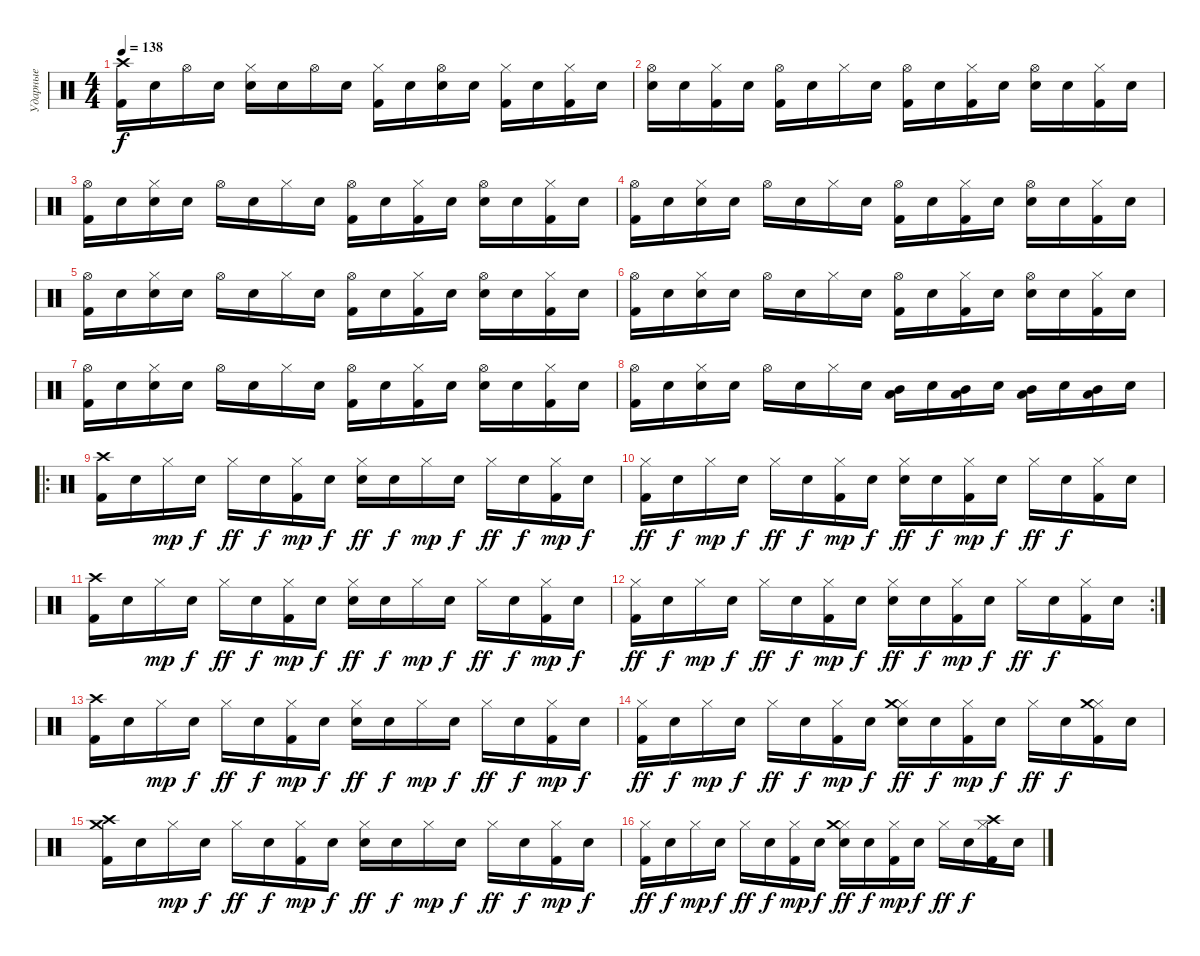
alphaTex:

\track ("Ударные" "Ударные") {instrument percussion}
\staff {score}
\articulation defaults
\ts (4 4)
\tempo 138
\clef neutral
\ks c
("Crash high (hit)" "Kick (hit) 2").16{dy f} "Snare (hit)".16 "Hi-Hat (open)".16 "Snare (hit)".16 ("Hi-Hat (closed)" "Snare (hit) 2").16 "Snare (hit)".16 "Hi-Hat (open)".16 "Snare (hit)".16 ("Hi-Hat (closed)" "Kick (hit) 2").16 "Snare (hit)".16 ("Hi-Hat (open)" "Snare (hit) 2").16 "Snare (hit)".16 ("Hi-Hat (closed)" "Kick (hit) 2").16 "Snare (hit)".16 ("Hi-Hat (closed)" "Kick (hit) 2").16 "Snare (hit)".16 |
("Hi-Hat (open)" "Snare (hit) 2").16 "Snare (hit)".16 ("Hi-Hat (closed)" "Kick (hit) 2").16 "Snare (hit)".16 ("Hi-Hat (open)" "Kick (hit) 2").16 "Snare (hit)".16 "Hi-Hat (closed)".16 "Snare (hit)".16 ("Hi-Hat (open)" "Kick (hit) 2").16 "Snare (hit)".16 ("Hi-Hat (closed)" "Kick (hit) 2").16 "Snare (hit)".16 ("Hi-Hat (open)" "Snare (hit) 2").16 "Snare (hit)".16 ("Hi-Hat (closed)" "Kick (hit) 2").16 "Snare (hit)".16 |
("Hi-Hat (open)" "Kick (hit) 2").16 "Snare (hit)".16 ("Hi-Hat (closed)" "Snare (hit) 2").16 "Snare (hit)".16 "Hi-Hat (open)".16 "Snare (hit)".16 "Hi-Hat (closed)".16 "Snare (hit)".16 ("Hi-Hat (open)" "Kick (hit) 2").16 "Snare (hit)".16 ("Hi-Hat (closed)" "Kick (hit) 2").16 "Snare (hit)".16 ("Hi-Hat (open)" "Snare (hit) 2").16 "Snare (hit)".16 ("Hi-Hat (closed)" "Kick (hit) 2").16 "Snare (hit)".16 |
("Hi-Hat (open)" "Kick (hit) 2").16 "Snare (hit)".16 ("Hi-Hat (closed)" "Snare (hit) 2").16 "Snare (hit)".16 "Hi-Hat (open)".16 "Snare (hit)".16 "Hi-Hat (closed)".16 "Snare (hit)".16 ("Hi-Hat (open)" "Kick (hit) 2").16 "Snare (hit)".16 ("Hi-Hat (closed)" "Kick (hit) 2").16 "Snare (hit)".16 ("Hi-Hat (open)" "Snare (hit) 2").16 "Snare (hit)".16 ("Hi-Hat (closed)" "Kick (hit) 2").16 "Snare (hit)".16 |
("Hi-Hat (open)" "Kick (hit) 2").16 "Snare (hit)".16 ("Hi-Hat (closed)" "Snare (hit) 2").16 "Snare (hit)".16 "Hi-Hat (open)".16 "Snare (hit)".16 "Hi-Hat (closed)".16 "Snare (hit)".16 ("Hi-Hat (open)" "Kick (hit) 2").16 "Snare (hit)".16 ("Hi-Hat (closed)" "Kick (hit) 2").16 "Snare (hit)".16 ("Hi-Hat (open)" "Snare (hit) 2").16 "Snare (hit)".16 ("Hi-Hat (closed)" "Kick (hit) 2").16 "Snare (hit)".16 |
("Hi-Hat (open)" "Kick (hit) 2").16 "Snare (hit)".16 ("Hi-Hat (closed)" "Snare (hit) 2").16 "Snare (hit)".16 "Hi-Hat (open)".16 "Snare (hit)".16 "Hi-Hat (closed)".16 "Snare (hit)".16 ("Hi-Hat (open)" "Kick (hit) 2").16 "Snare (hit)".16 ("Hi-Hat (closed)" "Kick (hit) 2").16 "Snare (hit)".16 ("Hi-Hat (open)" "Snare (hit) 2").16 "Snare (hit)".16 ("Hi-Hat (closed)" "Kick (hit) 2").16 "Snare (hit)".16 |
("Hi-Hat (open)" "Kick (hit) 2").16 "Snare (hit)".16 ("Hi-Hat (closed)" "Snare (hit) 2").16 "Snare (hit)".16 "Hi-Hat (open)".16 "Snare (hit)".16 "Hi-Hat (closed)".16 "Snare (hit)".16 ("Hi-Hat (open)" "Kick (hit) 2").16 "Snare (hit)".16 ("Hi-Hat (closed)" "Kick (hit) 2").16 "Snare (hit)".16 ("Hi-Hat (open)" "Snare (hit) 2").16 "Snare (hit)".16 ("Hi-Hat (closed)" "Kick (hit) 2").16 "Snare (hit)".16 |
("Hi-Hat (open)" "Kick (hit) 2").16 "Snare (hit)".16 ("Hi-Hat (closed)" "Snare (hit) 2").16 "Snare (hit)".16 "Hi-Hat (open)".16 "Snare (hit)".16 "Hi-Hat (closed)".16 "Snare (hit)".16 ("Low Tom (hit)" "Mid Tom (hit)").16 "Snare (hit)".16 ("Low Tom (hit)" "Mid Tom (hit)").16 "Snare (hit)".16 ("Low Tom (hit)" "Mid Tom (hit)").16 "Snare (hit)".16 ("Low Tom (hit)" "Mid Tom (hit)").16 "Snare (hit)".16 |
\ro
("Crash high (hit)" "Kick (hit) 2").16 "Snare (hit)".16 "Hi-Hat (closed)".16{dy mp} "Snare (hit)".16{dy f} "Hi-Hat (closed)".16{dy ff} "Snare (hit)".16{dy f} ("Hi-Hat (closed)" "Kick (hit) 2").16{dy mp} "Snare (hit)".16{dy f} ("Hi-Hat (closed)" "Snare (hit) 2").16{dy ff} "Snare (hit)".16{dy f} "Hi-Hat (closed)".16{dy mp} "Snare (hit)".16{dy f} "Hi-Hat (closed)".16{dy ff} "Snare (hit)".16{dy f} ("Hi-Hat (closed)" "Kick (hit) 2").16{dy mp} "Snare (hit)".16{dy f} |
("Hi-Hat (closed)" "Kick (hit) 2").16{dy ff} "Snare (hit)".16{dy f} "Hi-Hat (closed)".16{dy mp} "Snare (hit)".16{dy f} "Hi-Hat (closed)".16{dy ff} "Snare (hit)".16{dy f} ("Hi-Hat (closed)" "Kick (hit) 2").16{dy mp} "Snare (hit)".16{dy f} ("Hi-Hat (closed)" "Snare (hit) 2").16{dy ff} "Snare (hit)".16{dy f} ("Hi-Hat (closed)" "Kick (hit) 2").16{dy mp} "Snare (hit)".16{dy f} "Hi-Hat (closed)".16{dy ff} "Snare (hit)".16{dy f} ("Hi-Hat (closed)" "Kick (hit) 2").16 "Snare (hit)".16 |
("Crash high (hit)" "Kick (hit) 2").16 "Snare (hit)".16 "Hi-Hat (closed)".16{dy mp} "Snare (hit)".16{dy f} "Hi-Hat (closed)".16{dy ff} "Snare (hit)".16{dy f} ("Hi-Hat (closed)" "Kick (hit) 2").16{dy mp} "Snare (hit)".16{dy f} ("Hi-Hat (closed)" "Snare (hit) 2").16{dy ff} "Snare (hit)".16{dy f} "Hi-Hat (closed)".16{dy mp} "Snare (hit)".16{dy f} "Hi-Hat (closed)".16{dy ff} "Snare (hit)".16{dy f} ("Hi-Hat (closed)" "Kick (hit) 2").16{dy mp} "Snare (hit)".16{dy f} |
\rc 2
("Hi-Hat (closed)" "Kick (hit) 2").16{dy ff} "Snare (hit)".16{dy f} "Hi-Hat (closed)".16{dy mp} "Snare (hit)".16{dy f} "Hi-Hat (closed)".16{dy ff} "Snare (hit)".16{dy f} ("Hi-Hat (closed)" "Kick (hit) 2").16{dy mp} "Snare (hit)".16{dy f} ("Hi-Hat (closed)" "Snare (hit) 2").16{dy ff} "Snare (hit)".16{dy f} ("Hi-Hat (closed)" "Kick (hit) 2").16{dy mp} "Snare (hit)".16{dy f} "Hi-Hat (closed)".16{dy ff} "Snare (hit)".16{dy f} ("Hi-Hat (closed)" "Kick (hit) 2").16 "Snare (hit)".16 |
("Crash high (hit)" "Kick (hit) 2").16 "Snare (hit)".16 "Hi-Hat (closed)".16{dy mp} "Snare (hit)".16{dy f} "Hi-Hat (closed)".16{dy ff} "Snare (hit)".16{dy f} ("Hi-Hat (closed)" "Kick (hit) 2").16{dy mp} "Snare (hit)".16{dy f} ("Hi-Hat (closed)" "Snare (hit) 2").16{dy ff} "Snare (hit)".16{dy f} "Hi-Hat (closed)".16{dy mp} "Snare (hit)".16{dy f} "Hi-Hat (closed)".16{dy ff} "Snare (hit)".16{dy f} ("Hi-Hat (closed)" "Kick (hit) 2").16{dy mp} "Snare (hit)".16{dy f} |
("Hi-Hat (closed)" "Kick (hit) 2").16{dy ff} "Snare (hit)".16{dy f} "Hi-Hat (closed)".16{dy mp} "Snare (hit)".16{dy f} "Hi-Hat (closed)".16{dy ff} "Snare (hit)".16{dy f} ("Hi-Hat (closed)" "Kick (hit) 2").16{dy mp} "Snare (hit)".16{dy f} ("Hi-Hat (closed)" "Crash medium (hit)" "Snare (hit) 2").16{dy ff} "Snare (hit)".16{dy f} ("Hi-Hat (closed)" "Kick (hit) 2").16{dy mp} "Snare (hit)".16{dy f} "Hi-Hat (closed)".16{dy ff} "Snare (hit)".16{dy f} ("Hi-Hat (closed)" "Crash medium (hit)" "Kick (hit) 2").16 "Snare (hit)".16 |
("Crash high (hit)" "Crash medium (hit)" "Kick (hit) 2").16 "Snare (hit)".16 "Hi-Hat (closed)".16{dy mp} "Snare (hit)".16{dy f} "Hi-Hat (closed)".16{dy ff} "Snare (hit)".16{dy f} ("Hi-Hat (closed)" "Kick (hit) 2").16{dy mp} "Snare (hit)".16{dy f} ("Hi-Hat (closed)" "Snare (hit) 2").16{dy ff} "Snare (hit)".16{dy f} "Hi-Hat (closed)".16{dy mp} "Snare (hit)".16{dy f} "Hi-Hat (closed)".16{dy ff} "Snare (hit)".16{dy f} ("Hi-Hat (closed)" "Kick (hit) 2").16{dy mp} "Snare (hit)".16{dy f} |
("Hi-Hat (closed)" "Kick (hit) 2").16{dy ff} "Snare (hit)".16{dy f} "Hi-Hat (closed)".16{dy mp} "Snare (hit)".16{dy f} "Hi-Hat (closed)".16{dy ff} "Snare (hit)".16{dy f} ("Hi-Hat (closed)" "Kick (hit) 2").16{dy mp} "Snare (hit)".16{dy f} ("Hi-Hat (closed)" "Crash medium (hit)" "Snare (hit) 2").16{dy ff} "Snare (hit)".16{dy f} ("Hi-Hat (closed)" "Kick (hit) 2").16{dy mp} "Snare (hit)".16{dy f} "Hi-Hat (closed)".16{dy ff} "Snare (hit)".16{dy f} ("Hi-Hat (closed)" "Crash high (hit)" "Kick (hit) 2").16 "Snare (hit)".16
